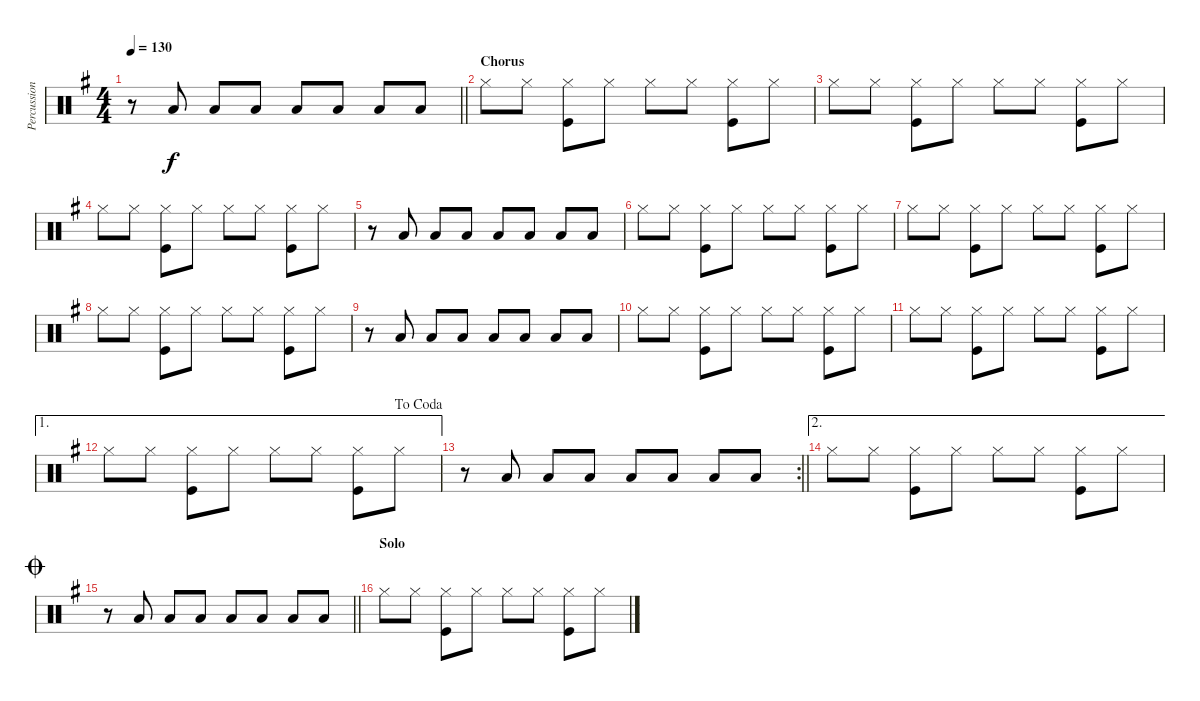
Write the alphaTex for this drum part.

\track ("Percussion" "Percussion") {instrument percussion}
\staff {score}
\articulation defaults
\ts (4 4)
\tempo 130
\clef neutral
\barLineRight lightlight
\ks g
r.8{dy f} "Low Tom (hit)".8 "Low Tom (hit)".8 "Low Tom (hit)".8 "Low Tom (hit)".8 "Low Tom (hit)".8 "Low Tom (hit)".8 "Low Tom (hit)".8 |
\section ("" "Chorus")
"Hi-Hat (closed)".8 "Hi-Hat (closed)".8 ("Hi-Hat (closed)" "Kick (hit)").8 "Hi-Hat (closed)".8 "Hi-Hat (closed)".8 "Hi-Hat (closed)".8 ("Hi-Hat (closed)" "Kick (hit)").8 "Hi-Hat (closed)".8 |
"Hi-Hat (closed)".8 "Hi-Hat (closed)".8 ("Hi-Hat (closed)" "Kick (hit)").8 "Hi-Hat (closed)".8 "Hi-Hat (closed)".8 "Hi-Hat (closed)".8 ("Hi-Hat (closed)" "Kick (hit)").8 "Hi-Hat (closed)".8 |
"Hi-Hat (closed)".8 "Hi-Hat (closed)".8 ("Hi-Hat (closed)" "Kick (hit)").8 "Hi-Hat (closed)".8 "Hi-Hat (closed)".8 "Hi-Hat (closed)".8 ("Hi-Hat (closed)" "Kick (hit)").8 "Hi-Hat (closed)".8 |
r.8 "Low Tom (hit)".8 "Low Tom (hit)".8 "Low Tom (hit)".8 "Low Tom (hit)".8 "Low Tom (hit)".8 "Low Tom (hit)".8 "Low Tom (hit)".8 |
"Hi-Hat (closed)".8 "Hi-Hat (closed)".8 ("Hi-Hat (closed)" "Kick (hit)").8 "Hi-Hat (closed)".8 "Hi-Hat (closed)".8 "Hi-Hat (closed)".8 ("Hi-Hat (closed)" "Kick (hit)").8 "Hi-Hat (closed)".8 |
"Hi-Hat (closed)".8 "Hi-Hat (closed)".8 ("Hi-Hat (closed)" "Kick (hit)").8 "Hi-Hat (closed)".8 "Hi-Hat (closed)".8 "Hi-Hat (closed)".8 ("Hi-Hat (closed)" "Kick (hit)").8 "Hi-Hat (closed)".8 |
"Hi-Hat (closed)".8 "Hi-Hat (closed)".8 ("Hi-Hat (closed)" "Kick (hit)").8 "Hi-Hat (closed)".8 "Hi-Hat (closed)".8 "Hi-Hat (closed)".8 ("Hi-Hat (closed)" "Kick (hit)").8 "Hi-Hat (closed)".8 |
r.8 "Low Tom (hit)".8 "Low Tom (hit)".8 "Low Tom (hit)".8 "Low Tom (hit)".8 "Low Tom (hit)".8 "Low Tom (hit)".8 "Low Tom (hit)".8 |
"Hi-Hat (closed)".8 "Hi-Hat (closed)".8 ("Hi-Hat (closed)" "Kick (hit)").8 "Hi-Hat (closed)".8 "Hi-Hat (closed)".8 "Hi-Hat (closed)".8 ("Hi-Hat (closed)" "Kick (hit)").8 "Hi-Hat (closed)".8 |
"Hi-Hat (closed)".8 "Hi-Hat (closed)".8 ("Hi-Hat (closed)" "Kick (hit)").8 "Hi-Hat (closed)".8 "Hi-Hat (closed)".8 "Hi-Hat (closed)".8 ("Hi-Hat (closed)" "Kick (hit)").8 "Hi-Hat (closed)".8 |
\ae 1
\jump dacoda "Hi-Hat (closed)".8 "Hi-Hat (closed)".8
("Hi-Hat (closed)" "Kick (hit)").8 "Hi-Hat (closed)".8 "Hi-Hat (closed)".8 "Hi-Hat (closed)".8 ("Hi-Hat (closed)" "Kick (hit)").8 "Hi-Hat (closed)".8 |
\rc 2
\barLineRight lightlight
r.8 "Low Tom (hit)".8 "Low Tom (hit)".8 "Low Tom (hit)".8 "Low Tom (hit)".8 "Low Tom (hit)".8 "Low Tom (hit)".8 "Low Tom (hit)".8 |
\ae 2 "Hi-Hat (closed)".8 "Hi-Hat (closed)".8
("Hi-Hat (closed)" "Kick (hit)").8 "Hi-Hat (closed)".8 "Hi-Hat (closed)".8 "Hi-Hat (closed)".8 ("Hi-Hat (closed)" "Kick (hit)").8 "Hi-Hat (closed)".8 |
\jump coda
\barLineRight lightlight
r.8 "Low Tom (hit)".8 "Low Tom (hit)".8 "Low Tom (hit)".8 "Low Tom (hit)".8 "Low Tom (hit)".8 "Low Tom (hit)".8 "Low Tom (hit)".8 |
\section ("" "Solo")
"Hi-Hat (closed)".8 "Hi-Hat (closed)".8 ("Hi-Hat (closed)" "Kick (hit)").8 "Hi-Hat (closed)".8 "Hi-Hat (closed)".8 "Hi-Hat (closed)".8 ("Hi-Hat (closed)" "Kick (hit)").8 "Hi-Hat (closed)".8
